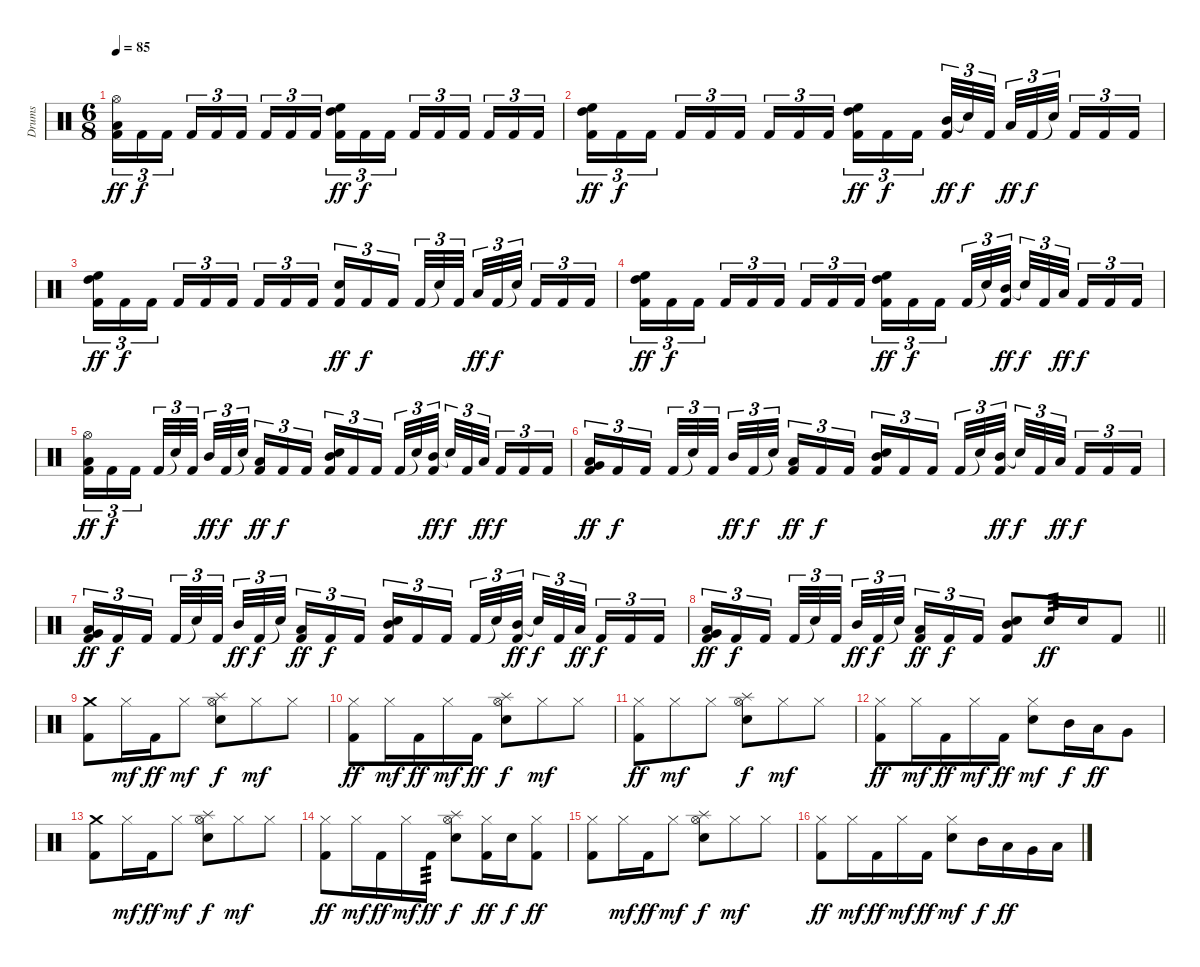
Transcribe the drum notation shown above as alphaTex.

\track ("Drums" "Drums") {instrument percussion}
\staff {score}
\articulation defaults
\ts (6 8)
\tempo 85
\clef neutral
\ks c
("Hi-Hat (open)" "Low Tom (hit)" "Kick (hit) 2").16{tu (3 2) dy ff} "Kick (hit) 2".16{tu (3 2) dy f} "Kick (hit) 2".16{tu (3 2) beam splitsecondary} "Kick (hit) 2".16{tu (3 2)} "Kick (hit) 2".16{tu (3 2)} "Kick (hit) 2".16{tu (3 2) beam splitsecondary} "Kick (hit) 2".16{tu (3 2)} "Kick (hit) 2".16{tu (3 2)} "Kick (hit) 2".16{tu (3 2)} ("High Tom (hit)" "High Floor Tom (hit)" "Kick (hit) 2").16{tu (3 2) dy ff} "Kick (hit) 2".16{tu (3 2) dy f} "Kick (hit) 2".16{tu (3 2) beam splitsecondary} "Kick (hit) 2".16{tu (3 2)} "Kick (hit) 2".16{tu (3 2)} "Kick (hit) 2".16{tu (3 2) beam splitsecondary} "Kick (hit) 2".16{tu (3 2)} "Kick (hit) 2".16{tu (3 2)} "Kick (hit) 2".16{tu (3 2)} |
("High Tom (hit)" "High Floor Tom (hit)" "Kick (hit) 2").16{tu (3 2) dy ff} "Kick (hit) 2".16{tu (3 2) dy f} "Kick (hit) 2".16{tu (3 2) beam splitsecondary} "Kick (hit) 2".16{tu (3 2)} "Kick (hit) 2".16{tu (3 2)} "Kick (hit) 2".16{tu (3 2) beam splitsecondary} "Kick (hit) 2".16{tu (3 2)} "Kick (hit) 2".16{tu (3 2)} "Kick (hit) 2".16{tu (3 2)} ("High Tom (hit)" "High Floor Tom (hit)" "Kick (hit) 2").16{tu (3 2) dy ff} "Kick (hit) 2".16{tu (3 2) dy f} "Kick (hit) 2".16{tu (3 2) beam splitsecondary} ("Mid Tom (hit)" "Kick (hit) 2").32{tu (3 2) dy ff} "Snare (hit)"{t}.32{tu (3 2) dy f} "Kick (hit) 2".32{tu (3 2) beam splitsecondary} "Low Tom (hit)".32{tu (3 2) dy ff} "Kick (hit) 2".32{tu (3 2) dy f} "Snare (hit)"{t}.32{tu (3 2) beam splitsecondary} "Kick (hit) 2".16{tu (3 2)} "Kick (hit) 2".16{tu (3 2)} "Kick (hit) 2".16{tu (3 2)} |
("High Tom (hit)" "High Floor Tom (hit)" "Kick (hit) 2").16{tu (3 2) dy ff} "Kick (hit) 2".16{tu (3 2) dy f} "Kick (hit) 2".16{tu (3 2) beam splitsecondary} "Kick (hit) 2".16{tu (3 2)} "Kick (hit) 2".16{tu (3 2)} "Kick (hit) 2".16{tu (3 2) beam splitsecondary} "Kick (hit) 2".16{tu (3 2)} "Kick (hit) 2".16{tu (3 2)} "Kick (hit) 2".16{tu (3 2)} ("Snare (hit) 2" "Kick (hit) 2").16{tu (3 2) dy ff} "Kick (hit) 2".16{tu (3 2) dy f} "Kick (hit) 2".16{tu (3 2) beam splitsecondary} "Kick (hit) 2".32{tu (3 2)} "Snare (hit)"{t}.32{tu (3 2)} "Kick (hit) 2".32{tu (3 2) beam splitsecondary} "Low Tom (hit)".32{tu (3 2) dy ff} "Kick (hit) 2".32{tu (3 2) dy f} "Snare (hit)"{t}.32{tu (3 2) beam splitsecondary} "Kick (hit) 2".16{tu (3 2)} "Kick (hit) 2".16{tu (3 2)} "Kick (hit) 2".16{tu (3 2)} |
("High Tom (hit)" "High Floor Tom (hit)" "Kick (hit) 2").16{tu (3 2) dy ff} "Kick (hit) 2".16{tu (3 2) dy f} "Kick (hit) 2".16{tu (3 2) beam splitsecondary} "Kick (hit) 2".16{tu (3 2)} "Kick (hit) 2".16{tu (3 2)} "Kick (hit) 2".16{tu (3 2) beam splitsecondary} "Kick (hit) 2".16{tu (3 2)} "Kick (hit) 2".16{tu (3 2)} "Kick (hit) 2".16{tu (3 2)} ("High Tom (hit)" "High Floor Tom (hit)" "Kick (hit) 2").16{tu (3 2) dy ff} "Kick (hit) 2".16{tu (3 2) dy f} "Kick (hit) 2".16{tu (3 2) beam splitsecondary} "Kick (hit) 2".32{tu (3 2)} "Snare (hit)"{t}.32{tu (3 2)} ("Mid Tom (hit)" "Kick (hit) 2").32{tu (3 2) dy ff beam splitsecondary} "Snare (hit)"{t}.32{tu (3 2) dy f} "Kick (hit) 2".32{tu (3 2)} "Low Tom (hit)".32{tu (3 2) dy ff beam splitsecondary} "Kick (hit) 2".16{tu (3 2) dy f} "Kick (hit) 2".16{tu (3 2)} "Kick (hit) 2".16{tu (3 2)} |
("Hi-Hat (open)" "Low Tom (hit)" "Kick (hit) 2").16{tu (3 2) dy ff} "Kick (hit) 2".16{tu (3 2) dy f} "Kick (hit) 2".16{tu (3 2) beam splitsecondary} "Kick (hit) 2".32{tu (3 2)} "Snare (hit)"{t}.32{tu (3 2)} "Kick (hit) 2".32{tu (3 2) beam splitsecondary} "Mid Tom (hit)".32{tu (3 2) dy ff} "Kick (hit) 2".32{tu (3 2) dy f} "Snare (hit)"{t}.32{tu (3 2) beam splitsecondary} ("Low Tom (hit)" "Kick (hit) 2").16{tu (3 2) dy ff} "Kick (hit) 2".16{tu (3 2) dy f} "Kick (hit) 2".16{tu (3 2)} ("Mid Tom (hit)" "Snare (hit) 2" "Kick (hit) 2").16{tu (3 2)} "Kick (hit) 2".16{tu (3 2)} "Kick (hit) 2".16{tu (3 2) beam splitsecondary} "Kick (hit) 2".32{tu (3 2)} "Snare (hit)"{t}.32{tu (3 2)} ("Mid Tom (hit)" "Kick (hit) 2").32{tu (3 2) dy ff beam splitsecondary} "Snare (hit)"{t}.32{tu (3 2) dy f} "Kick (hit) 2".32{tu (3 2)} "Low Tom (hit)".32{tu (3 2) dy ff beam splitsecondary} "Kick (hit) 2".16{tu (3 2) dy f} "Kick (hit) 2".16{tu (3 2)} "Kick (hit) 2".16{tu (3 2)} |
("Very Low Tom (hit)" "Low Tom (hit)" "Kick (hit) 2").16{tu (3 2) dy ff} "Kick (hit) 2".16{tu (3 2) dy f} "Kick (hit) 2".16{tu (3 2) beam splitsecondary} "Kick (hit) 2".32{tu (3 2)} "Snare (hit)"{t}.32{tu (3 2)} "Kick (hit) 2".32{tu (3 2) beam splitsecondary} "Mid Tom (hit)".32{tu (3 2) dy ff} "Kick (hit) 2".32{tu (3 2) dy f} "Snare (hit)"{t}.32{tu (3 2) beam splitsecondary} ("Low Tom (hit)" "Kick (hit) 2").16{tu (3 2) dy ff} "Kick (hit) 2".16{tu (3 2) dy f} "Kick (hit) 2".16{tu (3 2)} ("Mid Tom (hit)" "Snare (hit) 2" "Kick (hit) 2").16{tu (3 2)} "Kick (hit) 2".16{tu (3 2)} "Kick (hit) 2".16{tu (3 2) beam splitsecondary} "Kick (hit) 2".32{tu (3 2)} "Snare (hit)"{t}.32{tu (3 2)} ("Mid Tom (hit)" "Kick (hit) 2").32{tu (3 2) dy ff beam splitsecondary} "Snare (hit)"{t}.32{tu (3 2) dy f} "Kick (hit) 2".32{tu (3 2)} "Low Tom (hit)".32{tu (3 2) dy ff beam splitsecondary} "Kick (hit) 2".16{tu (3 2) dy f} "Kick (hit) 2".16{tu (3 2)} "Kick (hit) 2".16{tu (3 2)} |
("Very Low Tom (hit)" "Low Tom (hit)" "Kick (hit) 2").16{tu (3 2) dy ff} "Kick (hit) 2".16{tu (3 2) dy f} "Kick (hit) 2".16{tu (3 2) beam splitsecondary} "Kick (hit) 2".32{tu (3 2)} "Snare (hit)"{t}.32{tu (3 2)} "Kick (hit) 2".32{tu (3 2) beam splitsecondary} "Mid Tom (hit)".32{tu (3 2) dy ff} "Kick (hit) 2".32{tu (3 2) dy f} "Snare (hit)"{t}.32{tu (3 2) beam splitsecondary} ("Low Tom (hit)" "Kick (hit) 2").16{tu (3 2) dy ff} "Kick (hit) 2".16{tu (3 2) dy f} "Kick (hit) 2".16{tu (3 2)} ("Mid Tom (hit)" "Snare (hit) 2" "Kick (hit) 2").16{tu (3 2)} "Kick (hit) 2".16{tu (3 2)} "Kick (hit) 2".16{tu (3 2) beam splitsecondary} "Kick (hit) 2".32{tu (3 2)} "Snare (hit)"{t}.32{tu (3 2)} ("Mid Tom (hit)" "Kick (hit) 2").32{tu (3 2) dy ff beam splitsecondary} "Snare (hit)"{t}.32{tu (3 2) dy f} "Kick (hit) 2".32{tu (3 2)} "Low Tom (hit)".32{tu (3 2) dy ff beam splitsecondary} "Kick (hit) 2".16{tu (3 2) dy f} "Kick (hit) 2".16{tu (3 2)} "Kick (hit) 2".16{tu (3 2)} |
\barLineRight lightlight
("Very Low Tom (hit)" "Low Tom (hit)" "Kick (hit) 2").16{tu (3 2) dy ff} "Kick (hit) 2".16{tu (3 2) dy f} "Kick (hit) 2".16{tu (3 2) beam splitsecondary} "Kick (hit) 2".32{tu (3 2)} "Snare (hit)"{t}.32{tu (3 2)} "Kick (hit) 2".32{tu (3 2) beam splitsecondary} "Mid Tom (hit)".32{tu (3 2) dy ff} "Kick (hit) 2".32{tu (3 2) dy f} "Snare (hit)"{t}.32{tu (3 2) beam splitsecondary} ("Low Tom (hit)" "Kick (hit) 2").16{tu (3 2) dy ff} "Kick (hit) 2".16{tu (3 2) dy f} "Kick (hit) 2".16{tu (3 2)} ("Mid Tom (hit)" "Snare (hit) 2" "Kick (hit) 2").8 "Snare (hit) 2".16{tp 3 dy ff} "Snare (hit) 2".16 "Kick (hit) 2".8 |
\section ("" "")
("Crash medium (hit)" "Kick (hit) 2").8 "Hi-Hat (closed)".16{dy mf} "Kick (hit) 2".16{dy ff} "Hi-Hat (closed)".8{dy mf} ("Splash (hit)" "Hi-Hat (open)" "Snare (hit) 2").8{dy f} "Hi-Hat (closed)".8{dy mf} "Hi-Hat (closed)".8 |
("Hi-Hat (closed)" "Kick (hit) 2").8{dy ff} "Hi-Hat (closed)".16{dy mf} "Kick (hit) 2".16{dy ff} "Hi-Hat (closed)".16{dy mf} "Kick (hit) 2".16{dy ff} ("Splash (hit)" "Hi-Hat (open)" "Snare (hit) 2").8{dy f} "Hi-Hat (closed)".8{dy mf} "Hi-Hat (closed)".8 |
("Hi-Hat (closed)" "Kick (hit) 2").8{dy ff} "Hi-Hat (closed)".8{dy mf} "Hi-Hat (closed)".8 ("Splash (hit)" "Hi-Hat (open)" "Snare (hit) 2").8{dy f} "Hi-Hat (closed)".8{dy mf} "Hi-Hat (closed)".8 |
("Hi-Hat (closed)" "Kick (hit) 2").8{dy ff} "Hi-Hat (closed)".16{dy mf} "Kick (hit) 2".16{dy ff} "Hi-Hat (closed)".16{dy mf} "Kick (hit) 2".16{dy ff} ("Hi-Hat (closed)" "Snare (hit) 2").8{dy mf} "Mid Tom (hit)".16{dy f} "Low Tom (hit)".16{dy ff} "Very Low Tom (hit)".8 |
("Crash medium (hit)" "Kick (hit) 2").8 "Hi-Hat (closed)".16{dy mf} "Kick (hit) 2".16{dy ff} "Hi-Hat (closed)".8{dy mf} ("Splash (hit)" "Hi-Hat (open)" "Snare (hit) 2").8{dy f} "Hi-Hat (closed)".8{dy mf} "Hi-Hat (closed)".8 |
("Hi-Hat (closed)" "Kick (hit) 2").8{dy ff} "Hi-Hat (closed)".16{dy mf} "Kick (hit) 2".16{dy ff} "Hi-Hat (closed)".16{dy mf} "Kick (hit) 2".16{tp 3 dy ff} ("Splash (hit)" "Hi-Hat (open)" "Snare (hit) 2").8{dy f} ("Hi-Hat (closed)" "Kick (hit) 2").16{dy ff} "Snare (hit) 2".16{dy f} ("Hi-Hat (closed)" "Kick (hit) 2").8{dy ff} |
("Hi-Hat (closed)" "Kick (hit) 2").8 "Hi-Hat (closed)".16{dy mf} "Kick (hit) 2".16{dy ff} "Hi-Hat (closed)".8{dy mf} ("Splash (hit)" "Hi-Hat (open)" "Snare (hit) 2").8{dy f} "Hi-Hat (closed)".8{dy mf} "Hi-Hat (closed)".8 |
("Hi-Hat (closed)" "Kick (hit) 2").8{dy ff} "Hi-Hat (closed)".16{dy mf} "Kick (hit) 2".16{dy ff} "Hi-Hat (closed)".16{dy mf} "Kick (hit) 2".16{dy ff} ("Hi-Hat (closed)" "Snare (hit) 2").8{dy mf} "Mid Tom (hit)".16{dy f} "Low Tom (hit)".16{dy ff} "Very Low Tom (hit)".16 "Low Floor Tom (hit)".16
